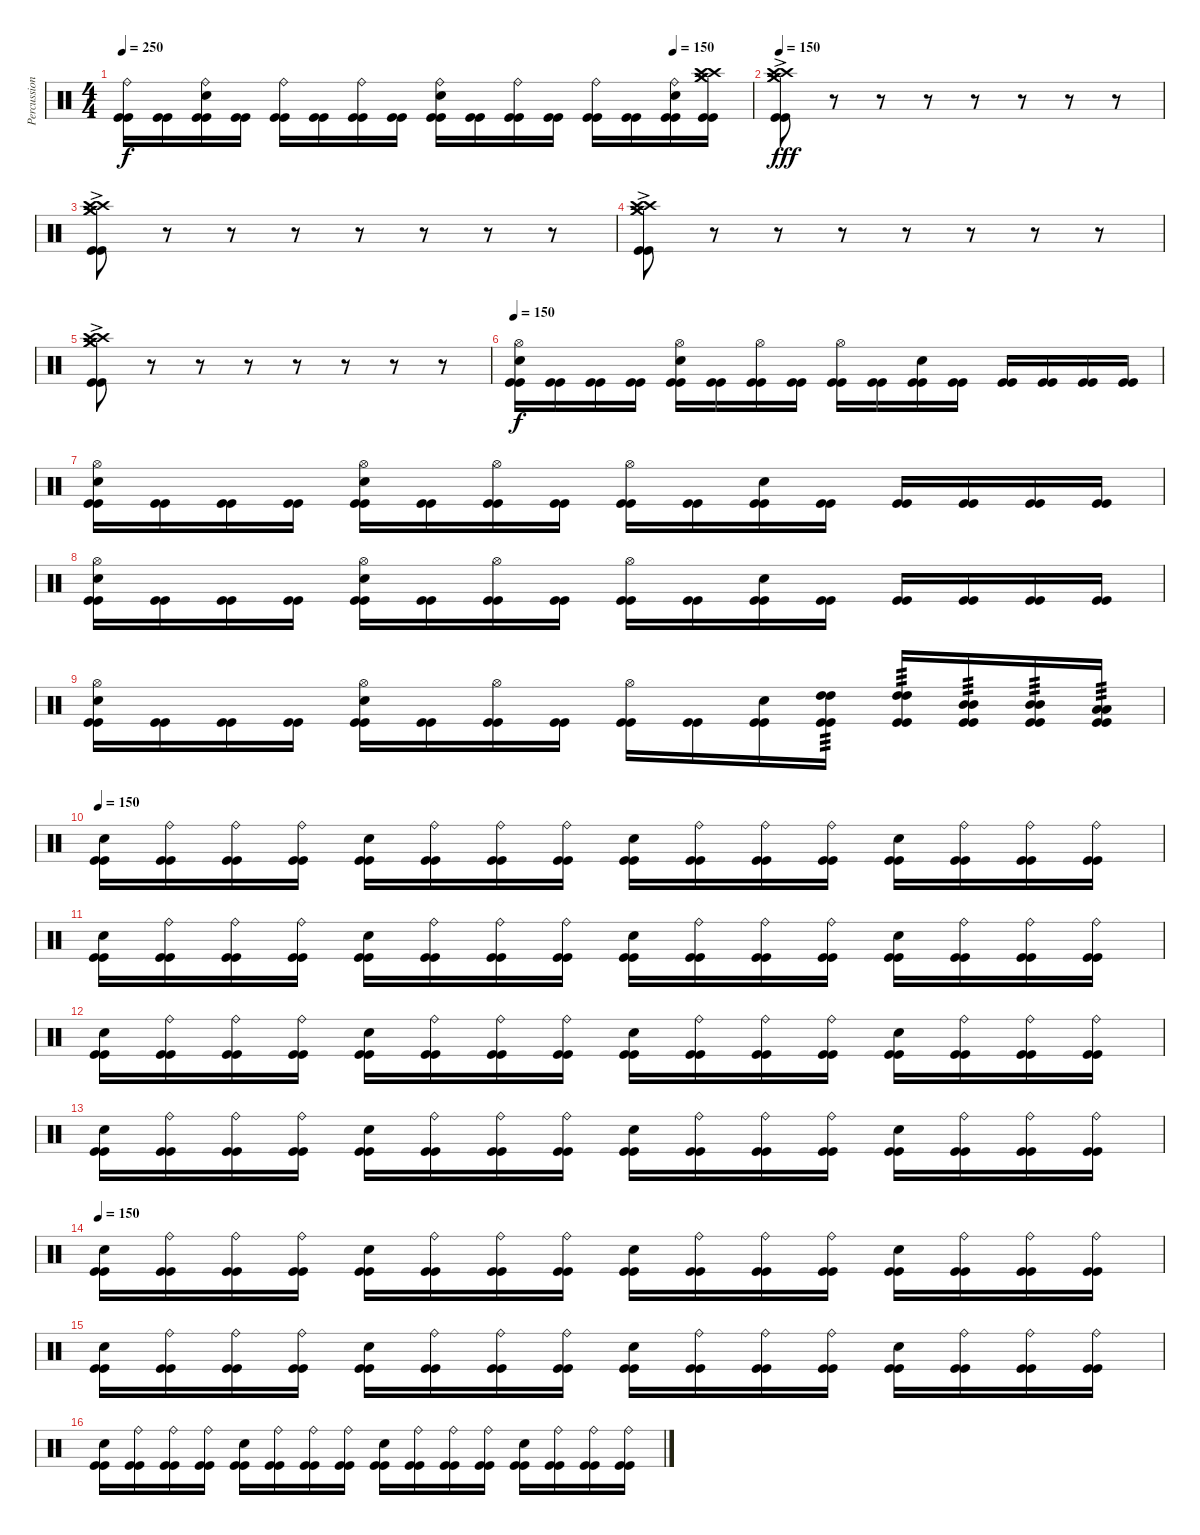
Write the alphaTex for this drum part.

\track ("Percussions" "Percussion") {instrument percussion}
\staff {score}
\articulation defaults
\ts (4 4)
\tempo 250
\tempo (150 0.875)
\clef neutral
\ks c
("Kick (hit)" "Kick (hit)" "Ride (bell)").16{dy f} ("Kick (hit)" "Kick (hit)").16 ("Kick (hit)" "Kick (hit)" "Electric Snare (hit)" "Ride (bell)").16 ("Kick (hit)" "Kick (hit)").16 ("Kick (hit)" "Kick (hit)" "Ride (bell)").16 ("Kick (hit)" "Kick (hit)").16 ("Kick (hit)" "Kick (hit)" "Ride (bell)").16 ("Kick (hit)" "Kick (hit)").16 ("Kick (hit)" "Kick (hit)" "Electric Snare (hit)" "Ride (bell)").16 ("Kick (hit)" "Kick (hit)").16 ("Kick (hit)" "Kick (hit)" "Ride (bell)").16 ("Kick (hit)" "Kick (hit)").16 ("Kick (hit)" "Kick (hit)" "Ride (bell)").16 ("Kick (hit)" "Kick (hit)").16 ("Kick (hit)" "Kick (hit)" "Electric Snare (hit)" "Ride (bell)").16 ("Kick (hit)" "Kick (hit)" "Crash medium (hit)" "Crash medium (hit)" "Crash high (hit)" "Crash high (hit)").16 |
\tempo 150
("Kick (hit)"{ac} "Kick (hit)"{ac} "Crash medium (hit)" "Crash medium (hit)" "Crash high (hit)" "Crash high (hit)").8{dy fff} r.8 r.8 r.8 r.8 r.8 r.8 r.8 |
("Kick (hit)"{ac} "Kick (hit)"{ac} "Crash medium (hit)" "Crash medium (hit)" "Crash high (hit)" "Crash high (hit)").8 r.8 r.8 r.8 r.8 r.8 r.8 r.8 |
("Kick (hit)"{ac} "Kick (hit)"{ac} "Crash medium (hit)" "Crash medium (hit)" "Crash high (hit)" "Crash high (hit)").8 r.8 r.8 r.8 r.8 r.8 r.8 r.8 |
("Kick (hit)"{ac} "Kick (hit)"{ac} "Crash medium (hit)" "Crash medium (hit)" "Crash high (hit)" "Crash high (hit)").8 r.8 r.8 r.8 r.8 r.8 r.8 r.8 |
\tempo 150
("Kick (hit)" "Kick (hit)" "Electric Snare (hit)" "Hi-Hat (open)").16{dy f} ("Kick (hit)" "Kick (hit)").16 ("Kick (hit)" "Kick (hit)").16 ("Kick (hit)" "Kick (hit)").16 ("Kick (hit)" "Kick (hit)" "Electric Snare (hit)" "Hi-Hat (open)").16 ("Kick (hit)" "Kick (hit)").16 ("Kick (hit)" "Kick (hit)" "Hi-Hat (open)").16 ("Kick (hit)" "Kick (hit)").16 ("Kick (hit)" "Kick (hit)" "Hi-Hat (open)").16 ("Kick (hit)" "Kick (hit)").16 ("Kick (hit)" "Kick (hit)" "Electric Snare (hit)").16 ("Kick (hit)" "Kick (hit)").16 ("Kick (hit)" "Kick (hit)").16 ("Kick (hit)" "Kick (hit)").16 ("Kick (hit)" "Kick (hit)").16 ("Kick (hit)" "Kick (hit)").16 |
("Kick (hit)" "Kick (hit)" "Electric Snare (hit)" "Hi-Hat (open)").16 ("Kick (hit)" "Kick (hit)").16 ("Kick (hit)" "Kick (hit)").16 ("Kick (hit)" "Kick (hit)").16 ("Kick (hit)" "Kick (hit)" "Electric Snare (hit)" "Hi-Hat (open)").16 ("Kick (hit)" "Kick (hit)").16 ("Kick (hit)" "Kick (hit)" "Hi-Hat (open)").16 ("Kick (hit)" "Kick (hit)").16 ("Kick (hit)" "Kick (hit)" "Hi-Hat (open)").16 ("Kick (hit)" "Kick (hit)").16 ("Kick (hit)" "Kick (hit)" "Electric Snare (hit)").16 ("Kick (hit)" "Kick (hit)").16 ("Kick (hit)" "Kick (hit)").16 ("Kick (hit)" "Kick (hit)").16 ("Kick (hit)" "Kick (hit)").16 ("Kick (hit)" "Kick (hit)").16 |
("Kick (hit)" "Kick (hit)" "Electric Snare (hit)" "Hi-Hat (open)").16 ("Kick (hit)" "Kick (hit)").16 ("Kick (hit)" "Kick (hit)").16 ("Kick (hit)" "Kick (hit)").16 ("Kick (hit)" "Kick (hit)" "Electric Snare (hit)" "Hi-Hat (open)").16 ("Kick (hit)" "Kick (hit)").16 ("Kick (hit)" "Kick (hit)" "Hi-Hat (open)").16 ("Kick (hit)" "Kick (hit)").16 ("Kick (hit)" "Kick (hit)" "Hi-Hat (open)").16 ("Kick (hit)" "Kick (hit)").16 ("Kick (hit)" "Kick (hit)" "Electric Snare (hit)").16 ("Kick (hit)" "Kick (hit)").16 ("Kick (hit)" "Kick (hit)").16 ("Kick (hit)" "Kick (hit)").16 ("Kick (hit)" "Kick (hit)").16 ("Kick (hit)" "Kick (hit)").16 |
("Kick (hit)" "Kick (hit)" "Electric Snare (hit)" "Hi-Hat (open)").16 ("Kick (hit)" "Kick (hit)").16 ("Kick (hit)" "Kick (hit)").16 ("Kick (hit)" "Kick (hit)").16 ("Kick (hit)" "Kick (hit)" "Electric Snare (hit)" "Hi-Hat (open)").16 ("Kick (hit)" "Kick (hit)").16 ("Kick (hit)" "Kick (hit)" "Hi-Hat (open)").16 ("Kick (hit)" "Kick (hit)").16 ("Kick (hit)" "Kick (hit)" "Hi-Hat (open)").16 ("Kick (hit)" "Kick (hit)").16 ("Kick (hit)" "Kick (hit)" "Electric Snare (hit)").16 ("Kick (hit)" "Kick (hit)" "High Tom (hit)" "High Tom (hit)").16{tp 3} ("Kick (hit)" "Kick (hit)" "High Tom (hit)" "High Tom (hit)").16{tp 3} ("Kick (hit)" "Kick (hit)" "Mid Tom (hit)" "Mid Tom (hit)").16{tp 3} ("Kick (hit)" "Kick (hit)" "Mid Tom (hit)" "Mid Tom (hit)").16{tp 3} ("Kick (hit)" "Kick (hit)" "Low Tom (hit)" "Low Tom (hit)").16{tp 3} |
\tempo 150
("Snare (hit) 2" "Kick (hit)" "Kick (hit)").16 ("Ride (bell)" "Kick (hit)" "Kick (hit)").16 ("Ride (bell)" "Kick (hit)" "Kick (hit)").16 ("Ride (bell)" "Kick (hit)" "Kick (hit)").16 ("Snare (hit) 2" "Kick (hit)" "Kick (hit)").16 ("Ride (bell)" "Kick (hit)" "Kick (hit)").16 ("Ride (bell)" "Kick (hit)" "Kick (hit)").16 ("Ride (bell)" "Kick (hit)" "Kick (hit)").16 ("Snare (hit) 2" "Kick (hit)" "Kick (hit)").16 ("Ride (bell)" "Kick (hit)" "Kick (hit)").16 ("Ride (bell)" "Kick (hit)" "Kick (hit)").16 ("Ride (bell)" "Kick (hit)" "Kick (hit)").16 ("Snare (hit) 2" "Kick (hit)" "Kick (hit)").16 ("Ride (bell)" "Kick (hit)" "Kick (hit)").16 ("Ride (bell)" "Kick (hit)" "Kick (hit)").16 ("Ride (bell)" "Kick (hit)" "Kick (hit)").16 |
("Snare (hit) 2" "Kick (hit)" "Kick (hit)").16 ("Ride (bell)" "Kick (hit)" "Kick (hit)").16 ("Ride (bell)" "Kick (hit)" "Kick (hit)").16 ("Ride (bell)" "Kick (hit)" "Kick (hit)").16 ("Snare (hit) 2" "Kick (hit)" "Kick (hit)").16 ("Ride (bell)" "Kick (hit)" "Kick (hit)").16 ("Ride (bell)" "Kick (hit)" "Kick (hit)").16 ("Ride (bell)" "Kick (hit)" "Kick (hit)").16 ("Snare (hit) 2" "Kick (hit)" "Kick (hit)").16 ("Ride (bell)" "Kick (hit)" "Kick (hit)").16 ("Ride (bell)" "Kick (hit)" "Kick (hit)").16 ("Ride (bell)" "Kick (hit)" "Kick (hit)").16 ("Snare (hit) 2" "Kick (hit)" "Kick (hit)").16 ("Ride (bell)" "Kick (hit)" "Kick (hit)").16 ("Ride (bell)" "Kick (hit)" "Kick (hit)").16 ("Ride (bell)" "Kick (hit)" "Kick (hit)").16 |
("Snare (hit) 2" "Kick (hit)" "Kick (hit)").16 ("Ride (bell)" "Kick (hit)" "Kick (hit)").16 ("Ride (bell)" "Kick (hit)" "Kick (hit)").16 ("Ride (bell)" "Kick (hit)" "Kick (hit)").16 ("Snare (hit) 2" "Kick (hit)" "Kick (hit)").16 ("Ride (bell)" "Kick (hit)" "Kick (hit)").16 ("Ride (bell)" "Kick (hit)" "Kick (hit)").16 ("Ride (bell)" "Kick (hit)" "Kick (hit)").16 ("Snare (hit) 2" "Kick (hit)" "Kick (hit)").16 ("Ride (bell)" "Kick (hit)" "Kick (hit)").16 ("Ride (bell)" "Kick (hit)" "Kick (hit)").16 ("Ride (bell)" "Kick (hit)" "Kick (hit)").16 ("Snare (hit) 2" "Kick (hit)" "Kick (hit)").16 ("Ride (bell)" "Kick (hit)" "Kick (hit)").16 ("Ride (bell)" "Kick (hit)" "Kick (hit)").16 ("Ride (bell)" "Kick (hit)" "Kick (hit)").16 |
("Snare (hit) 2" "Kick (hit)" "Kick (hit)").16 ("Ride (bell)" "Kick (hit)" "Kick (hit)").16 ("Ride (bell)" "Kick (hit)" "Kick (hit)").16 ("Ride (bell)" "Kick (hit)" "Kick (hit)").16 ("Snare (hit) 2" "Kick (hit)" "Kick (hit)").16 ("Ride (bell)" "Kick (hit)" "Kick (hit)").16 ("Ride (bell)" "Kick (hit)" "Kick (hit)").16 ("Ride (bell)" "Kick (hit)" "Kick (hit)").16 ("Snare (hit) 2" "Kick (hit)" "Kick (hit)").16 ("Ride (bell)" "Kick (hit)" "Kick (hit)").16 ("Ride (bell)" "Kick (hit)" "Kick (hit)").16 ("Ride (bell)" "Kick (hit)" "Kick (hit)").16 ("Snare (hit) 2" "Kick (hit)" "Kick (hit)").16 ("Ride (bell)" "Kick (hit)" "Kick (hit)").16 ("Ride (bell)" "Kick (hit)" "Kick (hit)").16 ("Ride (bell)" "Kick (hit)" "Kick (hit)").16 |
\tempo 150
("Snare (hit) 2" "Kick (hit)" "Kick (hit)").16 ("Ride (bell)" "Kick (hit)" "Kick (hit)").16 ("Ride (bell)" "Kick (hit)" "Kick (hit)").16 ("Ride (bell)" "Kick (hit)" "Kick (hit)").16 ("Snare (hit) 2" "Kick (hit)" "Kick (hit)").16 ("Ride (bell)" "Kick (hit)" "Kick (hit)").16 ("Ride (bell)" "Kick (hit)" "Kick (hit)").16 ("Ride (bell)" "Kick (hit)" "Kick (hit)").16 ("Snare (hit) 2" "Kick (hit)" "Kick (hit)").16 ("Ride (bell)" "Kick (hit)" "Kick (hit)").16 ("Ride (bell)" "Kick (hit)" "Kick (hit)").16 ("Ride (bell)" "Kick (hit)" "Kick (hit)").16 ("Snare (hit) 2" "Kick (hit)" "Kick (hit)").16 ("Ride (bell)" "Kick (hit)" "Kick (hit)").16 ("Ride (bell)" "Kick (hit)" "Kick (hit)").16 ("Ride (bell)" "Kick (hit)" "Kick (hit)").16 |
("Snare (hit) 2" "Kick (hit)" "Kick (hit)").16 ("Ride (bell)" "Kick (hit)" "Kick (hit)").16 ("Ride (bell)" "Kick (hit)" "Kick (hit)").16 ("Ride (bell)" "Kick (hit)" "Kick (hit)").16 ("Snare (hit) 2" "Kick (hit)" "Kick (hit)").16 ("Ride (bell)" "Kick (hit)" "Kick (hit)").16 ("Ride (bell)" "Kick (hit)" "Kick (hit)").16 ("Ride (bell)" "Kick (hit)" "Kick (hit)").16 ("Snare (hit) 2" "Kick (hit)" "Kick (hit)").16 ("Ride (bell)" "Kick (hit)" "Kick (hit)").16 ("Ride (bell)" "Kick (hit)" "Kick (hit)").16 ("Ride (bell)" "Kick (hit)" "Kick (hit)").16 ("Snare (hit) 2" "Kick (hit)" "Kick (hit)").16 ("Ride (bell)" "Kick (hit)" "Kick (hit)").16 ("Ride (bell)" "Kick (hit)" "Kick (hit)").16 ("Ride (bell)" "Kick (hit)" "Kick (hit)").16 |
("Snare (hit) 2" "Kick (hit)" "Kick (hit)").16 ("Ride (bell)" "Kick (hit)" "Kick (hit)").16 ("Ride (bell)" "Kick (hit)" "Kick (hit)").16 ("Ride (bell)" "Kick (hit)" "Kick (hit)").16 ("Snare (hit) 2" "Kick (hit)" "Kick (hit)").16 ("Ride (bell)" "Kick (hit)" "Kick (hit)").16 ("Ride (bell)" "Kick (hit)" "Kick (hit)").16 ("Ride (bell)" "Kick (hit)" "Kick (hit)").16 ("Snare (hit) 2" "Kick (hit)" "Kick (hit)").16 ("Ride (bell)" "Kick (hit)" "Kick (hit)").16 ("Ride (bell)" "Kick (hit)" "Kick (hit)").16 ("Ride (bell)" "Kick (hit)" "Kick (hit)").16 ("Snare (hit) 2" "Kick (hit)" "Kick (hit)").16 ("Ride (bell)" "Kick (hit)" "Kick (hit)").16 ("Ride (bell)" "Kick (hit)" "Kick (hit)").16 ("Ride (bell)" "Kick (hit)" "Kick (hit)").16
